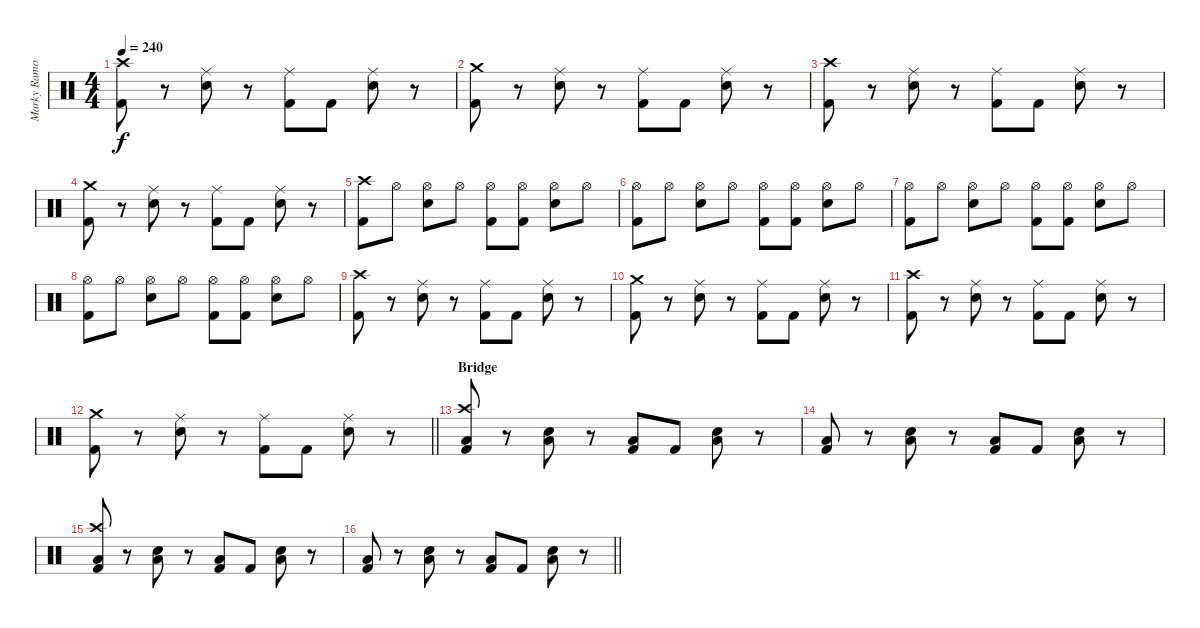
\track ("Marky Ramone" "Marky Ramo") {instrument percussion}
\staff {score}
\articulation defaults
\ts (4 4)
\tempo 240
\clef neutral
\ks c
("Kick (hit) 2" "Crash high (hit)").8{dy f} r.8 ("Electric Snare (hit)" "Ride (middle)").8 r.8 ("Kick (hit) 2" "Ride (middle)").8 "Kick (hit) 2".8 ("Electric Snare (hit)" "Ride (middle)").8 r.8 |
("Kick (hit) 2" "Crash medium (hit)").8 r.8 ("Electric Snare (hit)" "Ride (middle)").8 r.8 ("Kick (hit) 2" "Ride (middle)").8 "Kick (hit) 2".8 ("Electric Snare (hit)" "Ride (middle)").8 r.8 |
("Kick (hit) 2" "Crash high (hit)").8 r.8 ("Electric Snare (hit)" "Ride (middle)").8 r.8 ("Kick (hit) 2" "Ride (middle)").8 "Kick (hit) 2".8 ("Electric Snare (hit)" "Ride (middle)").8 r.8 |
("Kick (hit) 2" "Crash medium (hit)").8 r.8 ("Electric Snare (hit)" "Ride (middle)").8 r.8 ("Kick (hit) 2" "Ride (middle)").8 "Kick (hit) 2".8 ("Electric Snare (hit)" "Ride (middle)").8 r.8 |
("Kick (hit) 2" "Crash high (hit)").8 "Hi-Hat (open)".8 ("Electric Snare (hit)" "Hi-Hat (open)").8 "Hi-Hat (open)".8 ("Kick (hit) 2" "Hi-Hat (open)").8 ("Kick (hit) 2" "Hi-Hat (open)").8 ("Electric Snare (hit)" "Hi-Hat (open)").8 "Hi-Hat (open)".8 |
("Kick (hit) 2" "Hi-Hat (open)").8 "Hi-Hat (open)".8 ("Electric Snare (hit)" "Hi-Hat (open)").8 "Hi-Hat (open)".8 ("Kick (hit) 2" "Hi-Hat (open)").8 ("Kick (hit) 2" "Hi-Hat (open)").8 ("Electric Snare (hit)" "Hi-Hat (open)").8 "Hi-Hat (open)".8 |
("Kick (hit) 2" "Hi-Hat (open)").8 "Hi-Hat (open)".8 ("Electric Snare (hit)" "Hi-Hat (open)").8 "Hi-Hat (open)".8 ("Kick (hit) 2" "Hi-Hat (open)").8 ("Kick (hit) 2" "Hi-Hat (open)").8 ("Electric Snare (hit)" "Hi-Hat (open)").8 "Hi-Hat (open)".8 |
("Kick (hit) 2" "Hi-Hat (open)").8 "Hi-Hat (open)".8 ("Electric Snare (hit)" "Hi-Hat (open)").8 "Hi-Hat (open)".8 ("Kick (hit) 2" "Hi-Hat (open)").8 ("Kick (hit) 2" "Hi-Hat (open)").8 ("Electric Snare (hit)" "Hi-Hat (open)").8 "Hi-Hat (open)".8 |
("Kick (hit) 2" "Crash high (hit)").8 r.8 ("Electric Snare (hit)" "Ride (middle)").8 r.8 ("Kick (hit) 2" "Ride (middle)").8 "Kick (hit) 2".8 ("Electric Snare (hit)" "Ride (middle)").8 r.8 |
("Kick (hit) 2" "Crash medium (hit)").8 r.8 ("Electric Snare (hit)" "Ride (middle)").8 r.8 ("Kick (hit) 2" "Ride (middle)").8 "Kick (hit) 2".8 ("Electric Snare (hit)" "Ride (middle)").8 r.8 |
("Kick (hit) 2" "Crash high (hit)").8 r.8 ("Electric Snare (hit)" "Ride (middle)").8 r.8 ("Kick (hit) 2" "Ride (middle)").8 "Kick (hit) 2".8 ("Electric Snare (hit)" "Ride (middle)").8 r.8 |
\barLineRight lightlight
("Kick (hit) 2" "Crash medium (hit)").8 r.8 ("Electric Snare (hit)" "Ride (middle)").8 r.8 ("Kick (hit) 2" "Ride (middle)").8 "Kick (hit) 2".8 ("Electric Snare (hit)" "Ride (middle)").8 r.8 |
\section ("" "Bridge")
("Kick (hit) 2" "Low Floor Tom (hit)" "Crash high (hit)").8 r.8 ("Electric Snare (hit)" "Low Floor Tom (hit)").8 r.8 ("Kick (hit) 2" "Low Floor Tom (hit)").8 "Kick (hit) 2".8 ("Electric Snare (hit)" "Low Floor Tom (hit)").8 r.8 |
("Kick (hit) 2" "Low Floor Tom (hit)").8 r.8 ("Electric Snare (hit)" "Low Floor Tom (hit)").8 r.8 ("Kick (hit) 2" "Low Floor Tom (hit)").8 "Kick (hit) 2".8 ("Electric Snare (hit)" "Low Floor Tom (hit)").8 r.8 |
("Kick (hit) 2" "Low Floor Tom (hit)" "Crash high (hit)").8 r.8 ("Electric Snare (hit)" "Low Floor Tom (hit)").8 r.8 ("Kick (hit) 2" "Low Floor Tom (hit)").8 "Kick (hit) 2".8 ("Electric Snare (hit)" "Low Floor Tom (hit)").8 r.8 |
\barLineRight lightlight
("Kick (hit) 2" "Low Floor Tom (hit)").8 r.8 ("Electric Snare (hit)" "Low Floor Tom (hit)").8 r.8 ("Kick (hit) 2" "Low Floor Tom (hit)").8 "Kick (hit) 2".8 ("Electric Snare (hit)" "Low Floor Tom (hit)").8 r.8
